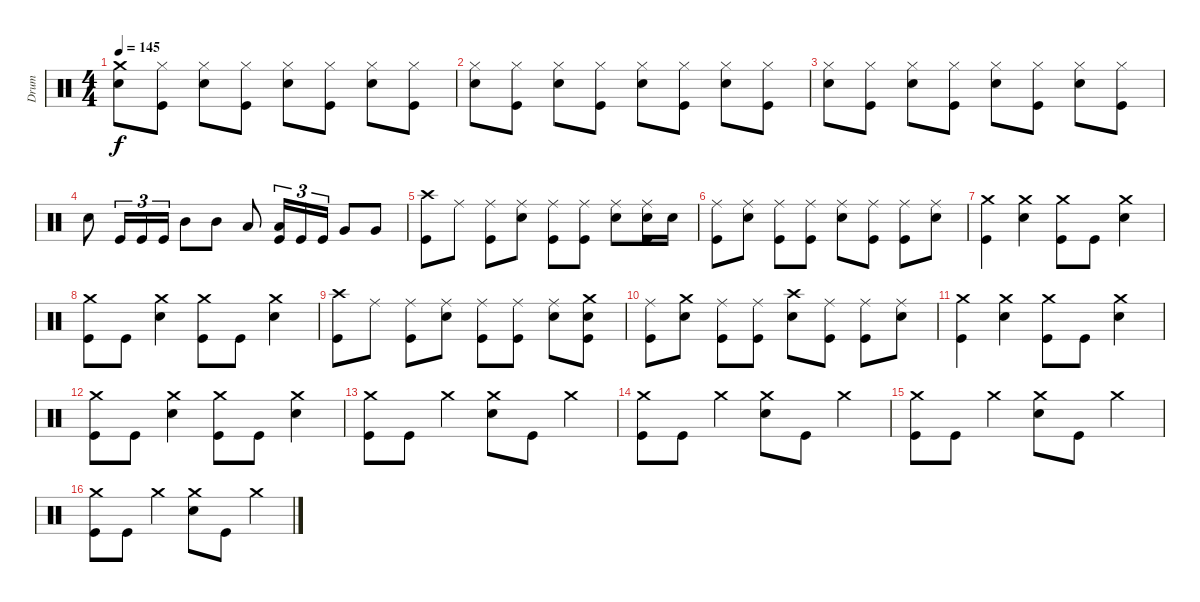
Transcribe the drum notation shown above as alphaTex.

\track ("Drum" "Drum") {instrument percussion}
\staff {score}
\articulation defaults
\ts (4 4)
\tempo 145
\clef neutral
\ks c
("Electric Snare (hit)" "Crash medium (hit)").8{dy f} ("Kick (hit)" "Hi-Hat (closed)").8 ("Electric Snare (hit)" "Hi-Hat (closed)").8 ("Kick (hit)" "Hi-Hat (closed)").8 ("Electric Snare (hit)" "Hi-Hat (closed)").8 ("Kick (hit)" "Hi-Hat (closed)").8 ("Electric Snare (hit)" "Hi-Hat (closed)").8 ("Kick (hit)" "Hi-Hat (closed)").8 |
("Electric Snare (hit)" "Hi-Hat (closed)").8 ("Kick (hit)" "Hi-Hat (closed)").8 ("Electric Snare (hit)" "Hi-Hat (closed)").8 ("Kick (hit)" "Hi-Hat (closed)").8 ("Electric Snare (hit)" "Hi-Hat (closed)").8 ("Kick (hit)" "Hi-Hat (closed)").8 ("Electric Snare (hit)" "Hi-Hat (closed)").8 ("Kick (hit)" "Hi-Hat (closed)").8 |
("Electric Snare (hit)" "Hi-Hat (closed)").8 ("Kick (hit)" "Hi-Hat (closed)").8 ("Electric Snare (hit)" "Hi-Hat (closed)").8 ("Kick (hit)" "Hi-Hat (closed)").8 ("Electric Snare (hit)" "Hi-Hat (closed)").8 ("Kick (hit)" "Hi-Hat (closed)").8 ("Electric Snare (hit)" "Hi-Hat (closed)").8 ("Kick (hit)" "Hi-Hat (closed)").8 |
"Electric Snare (hit)".8 "Kick (hit)".16{tu (3 2)} "Kick (hit)".16{tu (3 2)} "Kick (hit)".16{tu (3 2)} "Mid Tom (hit)".8 "Mid Tom (hit)".8 "Low Tom (hit)".8 ("Kick (hit)" "Low Tom (hit)").16{tu (3 2)} "Kick (hit)".16{tu (3 2)} "Kick (hit)".16{tu (3 2)} "Very Low Tom (hit)".8 "Very Low Tom (hit)".8 |
("Kick (hit)" "Crash high (hit)").8 "Ride (middle)".8 ("Kick (hit)" "Ride (middle)").8 ("Electric Snare (hit)" "Ride (middle)").8 ("Kick (hit)" "Ride (middle)").8 ("Kick (hit)" "Ride (middle)").8 ("Electric Snare (hit)" "Ride (middle)").8 ("Kick (hit)" "Electric Snare (hit)" "Ride (middle)").16 "Electric Snare (hit)".16 |
("Kick (hit)" "Ride (middle)").8 ("Electric Snare (hit)" "Ride (middle)").8 ("Kick (hit)" "Ride (middle)").8 ("Kick (hit)" "Ride (middle)").8 ("Electric Snare (hit)" "Ride (middle)").8 ("Kick (hit)" "Ride (middle)").8 ("Kick (hit)" "Ride (middle)").8 ("Electric Snare (hit)" "Ride (middle)").8 |
("Kick (hit)" "Crash medium (hit)").4 ("Electric Snare (hit)" "Crash medium (hit)").4 ("Kick (hit)" "Crash medium (hit)").8 "Kick (hit)".8 ("Electric Snare (hit)" "Crash medium (hit)").4 |
("Kick (hit)" "Crash medium (hit)").8 "Kick (hit)".8 ("Electric Snare (hit)" "Crash medium (hit)").4 ("Kick (hit)" "Crash medium (hit)").8 "Kick (hit)".8 ("Electric Snare (hit)" "Crash medium (hit)").4 |
("Kick (hit)" "Crash high (hit)").8 "Ride (middle)".8 ("Kick (hit)" "Ride (middle)").8 ("Electric Snare (hit)" "Ride (middle)").8 ("Kick (hit)" "Ride (middle)").8 ("Kick (hit)" "Ride (middle)").8 ("Electric Snare (hit)" "Ride (middle)").8 ("Kick (hit)" "Electric Snare (hit)" "Crash medium (hit)").8 |
("Kick (hit)" "Ride (middle)").8 ("Electric Snare (hit)" "Crash medium (hit)").8 ("Kick (hit)" "Ride (middle)").8 ("Kick (hit)" "Ride (middle)").8 ("Electric Snare (hit)" "Crash high (hit)").8 ("Kick (hit)" "Ride (middle)").8 ("Kick (hit)" "Ride (middle)").8 ("Electric Snare (hit)" "Ride (middle)").8 |
("Kick (hit)" "Crash medium (hit)").4 ("Electric Snare (hit)" "Crash medium (hit)").4 ("Kick (hit)" "Crash medium (hit)").8 "Kick (hit)".8 ("Electric Snare (hit)" "Crash medium (hit)").4 |
("Kick (hit)" "Crash medium (hit)").8 "Kick (hit)".8 ("Electric Snare (hit)" "Crash medium (hit)").4 ("Kick (hit)" "Crash medium (hit)").8 "Kick (hit)".8 ("Electric Snare (hit)" "Crash medium (hit)").4 |
("Kick (hit)" "Crash medium (hit)").8 "Kick (hit)".8 "Crash medium (hit)".4 ("Electric Snare (hit)" "Crash medium (hit)").8 "Kick (hit)".8 "Crash medium (hit)".4 |
("Kick (hit)" "Crash medium (hit)").8 "Kick (hit)".8 "Crash medium (hit)".4 ("Electric Snare (hit)" "Crash medium (hit)").8 "Kick (hit)".8 "Crash medium (hit)".4 |
("Kick (hit)" "Crash medium (hit)").8 "Kick (hit)".8 "Crash medium (hit)".4 ("Electric Snare (hit)" "Crash medium (hit)").8 "Kick (hit)".8 "Crash medium (hit)".4 |
("Kick (hit)" "Crash medium (hit)").8 "Kick (hit)".8 "Crash medium (hit)".4 ("Electric Snare (hit)" "Crash medium (hit)").8 "Kick (hit)".8 "Crash medium (hit)".4
